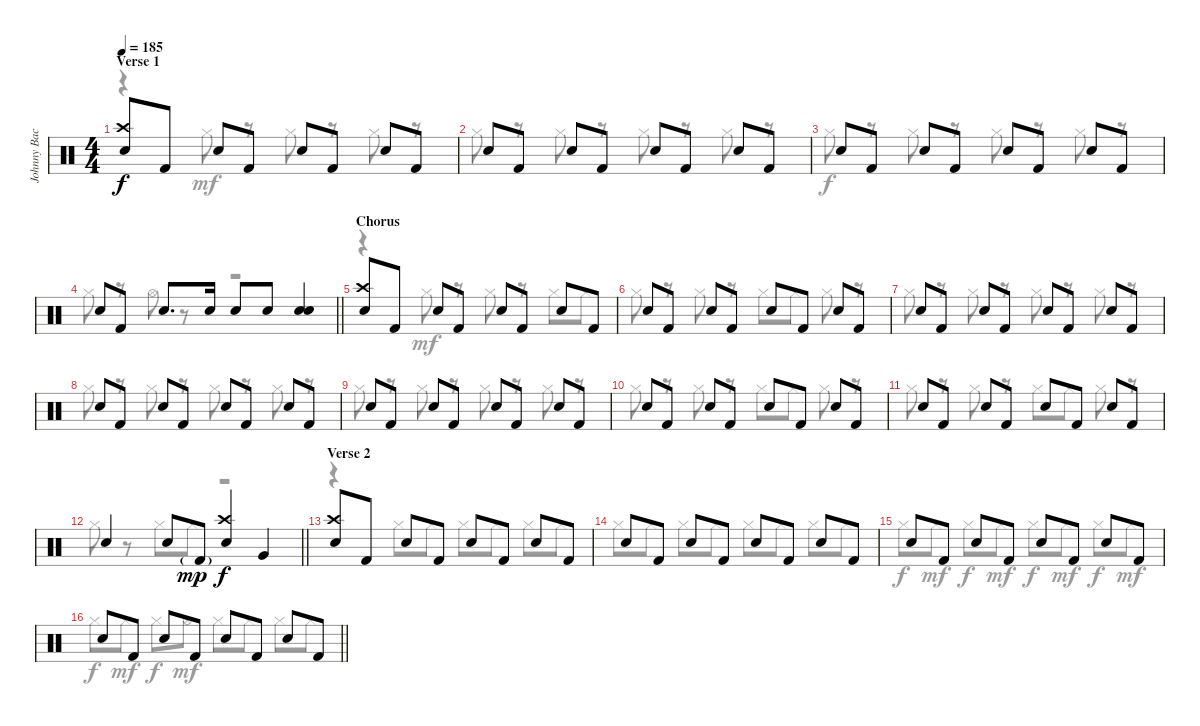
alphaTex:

\track ("Johnny Backbeat" "Johnny Bac") {instrument percussion}
\staff {score}
\articulation defaults
\voice
\ts (4 4)
\section ("" "Verse 1")
\tempo 185
\clef neutral
\ks c
("Crash high (hit)" "Electric Snare (hit)").8{dy f} "Kick (hit) 2".8 "Electric Snare (hit)".8 "Kick (hit) 2".8 "Electric Snare (hit)".8 "Kick (hit) 2".8 "Electric Snare (hit)".8 "Kick (hit) 2".8 |
"Electric Snare (hit)".8 "Kick (hit) 2".8 "Electric Snare (hit)".8 "Kick (hit) 2".8 "Electric Snare (hit)".8 "Kick (hit) 2".8 "Electric Snare (hit)".8 "Kick (hit) 2".8 |
"Electric Snare (hit)".8 "Kick (hit) 2".8 "Electric Snare (hit)".8 "Kick (hit) 2".8 "Electric Snare (hit)".8 "Kick (hit) 2".8 "Electric Snare (hit)".8 "Kick (hit) 2".8 |
\barLineRight lightlight "Electric Snare (hit)".8 "Kick (hit) 2".8 "Electric Snare (hit)".8{d} "Electric Snare (hit)".16 "Electric Snare (hit)".8 "Electric Snare (hit)".8
("Electric Snare (hit)" "Electric Snare (hit)").4 |
\section ("" "Chorus")
("Crash high (hit)" "Electric Snare (hit)").8 "Kick (hit) 2".8 "Electric Snare (hit)".8 "Kick (hit) 2".8 "Electric Snare (hit)".8 "Kick (hit) 2".8 "Electric Snare (hit)".8 "Kick (hit) 2".8 |
"Electric Snare (hit)".8 "Kick (hit) 2".8 "Electric Snare (hit)".8 "Kick (hit) 2".8 "Electric Snare (hit)".8 "Kick (hit) 2".8 "Electric Snare (hit)".8 "Kick (hit) 2".8 |
"Electric Snare (hit)".8 "Kick (hit) 2".8 "Electric Snare (hit)".8 "Kick (hit) 2".8 "Electric Snare (hit)".8 "Kick (hit) 2".8 "Electric Snare (hit)".8 "Kick (hit) 2".8 |
"Electric Snare (hit)".8 "Kick (hit) 2".8 "Electric Snare (hit)".8 "Kick (hit) 2".8 "Electric Snare (hit)".8 "Kick (hit) 2".8 "Electric Snare (hit)".8 "Kick (hit) 2".8 |
"Electric Snare (hit)".8 "Kick (hit) 2".8 "Electric Snare (hit)".8 "Kick (hit) 2".8 "Electric Snare (hit)".8 "Kick (hit) 2".8 "Electric Snare (hit)".8 "Kick (hit) 2".8 |
"Electric Snare (hit)".8 "Kick (hit) 2".8 "Electric Snare (hit)".8 "Kick (hit) 2".8 "Electric Snare (hit)".8 "Kick (hit) 2".8 "Electric Snare (hit)".8 "Kick (hit) 2".8 |
"Electric Snare (hit)".8 "Kick (hit) 2".8 "Electric Snare (hit)".8 "Kick (hit) 2".8 "Electric Snare (hit)".8 "Kick (hit) 2".8 "Electric Snare (hit)".8 "Kick (hit) 2".8 |
\barLineRight lightlight "Electric Snare (hit)".4 "Electric Snare (hit)".8 "Kick (hit) 2"{g}.8{dy mp}
("Crash high (hit)" "Electric Snare (hit)").4{dy f} "Very Low Tom (hit)".4 |
\section ("" "Verse 2")
("Crash high (hit)" "Electric Snare (hit)").8 "Kick (hit) 2".8 "Electric Snare (hit)".8 "Kick (hit) 2".8 "Electric Snare (hit)".8 "Kick (hit) 2".8 "Electric Snare (hit)".8 "Kick (hit) 2".8 |
"Electric Snare (hit)".8 "Kick (hit) 2".8 "Electric Snare (hit)".8 "Kick (hit) 2".8 "Electric Snare (hit)".8 "Kick (hit) 2".8 "Electric Snare (hit)".8 "Kick (hit) 2".8 |
"Electric Snare (hit)".8 "Kick (hit) 2".8 "Electric Snare (hit)".8 "Kick (hit) 2".8 "Electric Snare (hit)".8 "Kick (hit) 2".8 "Electric Snare (hit)".8 "Kick (hit) 2".8 |
\barLineRight lightlight "Electric Snare (hit)".8 "Kick (hit) 2".8 "Electric Snare (hit)".8 "Kick (hit) 2".8 "Electric Snare (hit)".8 "Kick (hit) 2".8 "Electric Snare (hit)".8 "Kick (hit) 2".8
\voice
\clef neutral
\ottava regular
\simile none
\ks c
r.4{dy mf} "Hi-Hat (closed)".8 r.8 "Hi-Hat (closed)".8 r.8 "Hi-Hat (closed)".8 r.8 |
"Hi-Hat (closed)".8 r.8 "Hi-Hat (closed)".8 r.8 "Hi-Hat (closed)".8 r.8 "Hi-Hat (closed)".8 r.8 |
"Hi-Hat (closed)".8{dy f} r.8 "Hi-Hat (closed)".8 r.8 "Hi-Hat (closed)".8 r.8 "Hi-Hat (closed)".8 r.8 |
\barLineRight lightlight "Hi-Hat (closed)".8
r.8 "Hi-Hat (open)".8 r.8 r.2 |
r.4 "Hi-Hat (closed)".8{dy mf} r.8 "Hi-Hat (closed)".8 r.8 "Hi-Hat (closed)".8 "Hi-Hat (closed)".8 |
"Hi-Hat (closed)".8 r.8 "Hi-Hat (closed)".8 r.8 "Hi-Hat (closed)".8 "Hi-Hat (closed)".8 "Hi-Hat (closed)".8 r.8 |
"Hi-Hat (closed)".8 r.8 "Hi-Hat (closed)".8 r.8 "Hi-Hat (closed)".8 r.8 "Hi-Hat (closed)".8 r.8 |
"Hi-Hat (closed)".8 r.8 "Hi-Hat (closed)".8 r.8 "Hi-Hat (closed)".8 r.8 "Hi-Hat (closed)".8 r.8 |
"Hi-Hat (closed)".8 r.8 "Hi-Hat (closed)".8 r.8 "Hi-Hat (closed)".8 r.8 "Hi-Hat (closed)".8 r.8 |
"Hi-Hat (closed)".8 r.8 "Hi-Hat (closed)".8 r.8 "Hi-Hat (closed)".8 "Hi-Hat (closed)".8 "Hi-Hat (closed)".8 r.8 |
"Hi-Hat (closed)".8 r.8 "Hi-Hat (closed)".8 r.8 "Hi-Hat (closed)".8 "Hi-Hat (closed)".8 "Hi-Hat (closed)".8 r.8 |
\barLineRight lightlight "Hi-Hat (closed)".8
r.8 "Hi-Hat (closed)".8 "Hi-Hat (closed)".8 r.2 |
r.4 "Hi-Hat (closed)".8 "Hi-Hat (closed)".8 "Hi-Hat (closed)".8 "Hi-Hat (closed)".8 "Hi-Hat (closed)".8 "Hi-Hat (closed)".8 |
"Hi-Hat (closed)".8 "Hi-Hat (closed)".8 "Hi-Hat (closed)".8 "Hi-Hat (closed)".8 "Hi-Hat (closed)".8 "Hi-Hat (closed)".8 "Hi-Hat (closed)".8 "Hi-Hat (closed)".8 |
"Hi-Hat (closed)".8{dy f} "Hi-Hat (closed)".8{dy mf} "Hi-Hat (closed)".8{dy f} "Hi-Hat (closed)".8{dy mf} "Hi-Hat (closed)".8{dy f} "Hi-Hat (closed)".8{dy mf} "Hi-Hat (closed)".8{dy f} "Hi-Hat (closed)".8{dy mf} |
\barLineRight lightlight "Hi-Hat (closed)".8{dy f} "Hi-Hat (closed)".8{dy mf} "Hi-Hat (closed)".8{dy f} "Hi-Hat (open)".8{dy mf} "Hi-Hat (closed)".8 "Hi-Hat (closed)".8 "Hi-Hat (closed)".8 "Hi-Hat (closed)".8
